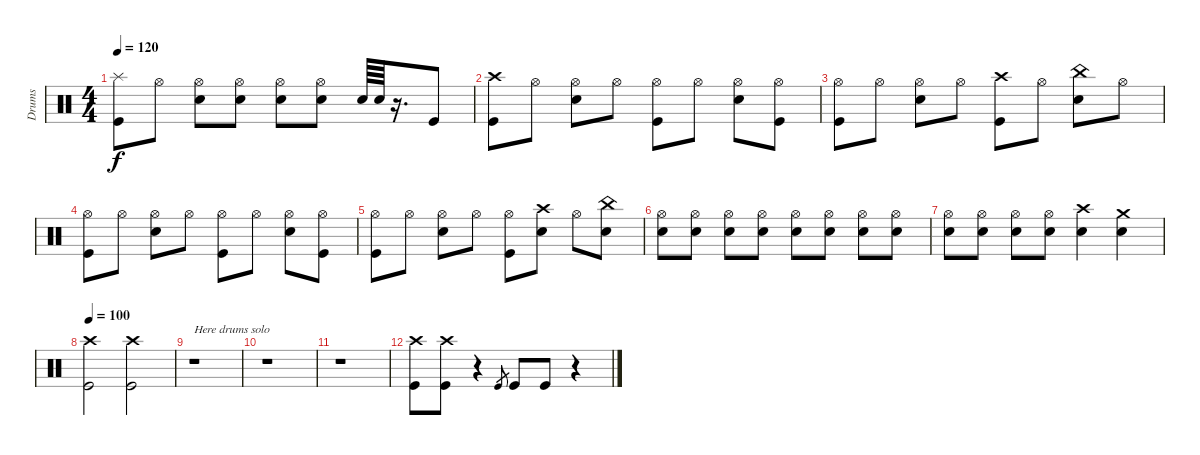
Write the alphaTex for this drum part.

\track ("Drums" "Drums") {instrument percussion}
\staff {score}
\articulation defaults
\ts (4 4)
\tempo 120
\clef neutral
\ks c
("Kick (hit)" "Splash (hit)").8{dy f} "Hi-Hat (open)".8 ("Hi-Hat (open)" "Snare (hit) 2").8 ("Hi-Hat (open)" "Snare (hit) 2").8 ("Hi-Hat (open)" "Snare (hit) 2").8 ("Hi-Hat (open)" "Snare (hit) 2").8 "Snare (hit) 2".64 "Snare (hit) 2".64 r.16{d} "Kick (hit)".8 |
("Kick (hit)" "Crash high (hit)").8 "Hi-Hat (open)".8 ("Hi-Hat (open)" "Snare (hit) 2").8 "Hi-Hat (open)".8 ("Hi-Hat (open)" "Kick (hit)").8 "Hi-Hat (open)".8 ("Hi-Hat (open)" "Snare (hit) 2").8 ("Hi-Hat (open)" "Kick (hit)").8 |
("Hi-Hat (open)" "Kick (hit)").8 "Hi-Hat (open)".8 ("Hi-Hat (open)" "Snare (hit) 2").8 "Hi-Hat (open)".8 ("Kick (hit)" "Crash high (hit)").8 "Hi-Hat (open)".8 ("Snare (hit) 2" "China (hit)").8 "Hi-Hat (open)".8 |
("Hi-Hat (open)" "Kick (hit)").8 "Hi-Hat (open)".8 ("Hi-Hat (open)" "Snare (hit) 2").8 "Hi-Hat (open)".8 ("Hi-Hat (open)" "Kick (hit)").8 "Hi-Hat (open)".8 ("Hi-Hat (open)" "Snare (hit) 2").8 ("Hi-Hat (open)" "Kick (hit)").8 |
("Hi-Hat (open)" "Kick (hit)").8 "Hi-Hat (open)".8 ("Hi-Hat (open)" "Snare (hit) 2").8 "Hi-Hat (open)".8 ("Hi-Hat (open)" "Kick (hit)").8 ("Snare (hit) 2" "Crash high (hit)").8 "Hi-Hat (open)".8 ("Snare (hit) 2" "China (hit)").8 |
("Hi-Hat (open)" "Snare (hit) 2").8 ("Hi-Hat (open)" "Snare (hit) 2").8 ("Hi-Hat (open)" "Snare (hit) 2").8 ("Hi-Hat (open)" "Snare (hit) 2").8 ("Hi-Hat (open)" "Snare (hit) 2").8 ("Hi-Hat (open)" "Snare (hit) 2").8 ("Hi-Hat (open)" "Snare (hit) 2").8 ("Hi-Hat (open)" "Snare (hit) 2").8 |
("Hi-Hat (open)" "Snare (hit) 2").8 ("Hi-Hat (open)" "Snare (hit) 2").8 ("Hi-Hat (open)" "Snare (hit) 2").8 ("Hi-Hat (open)" "Snare (hit) 2").8 ("Crash high (hit)" "Snare (hit) 2").4 ("Crash medium (hit)" "Snare (hit) 2").4 |
\tempo 100
("Crash high (hit)" "Kick (hit)").2 ("Crash high (hit)" "Kick (hit)").2 |
r.1{txt "Here drums solo"} |
r.1 |
r.1 |
("Crash high (hit)" "Kick (hit)").8 ("Crash high (hit)" "Kick (hit)").8 r.4 "Kick (hit)".8{gr} "Kick (hit)".8 "Kick (hit)".8 r.4
